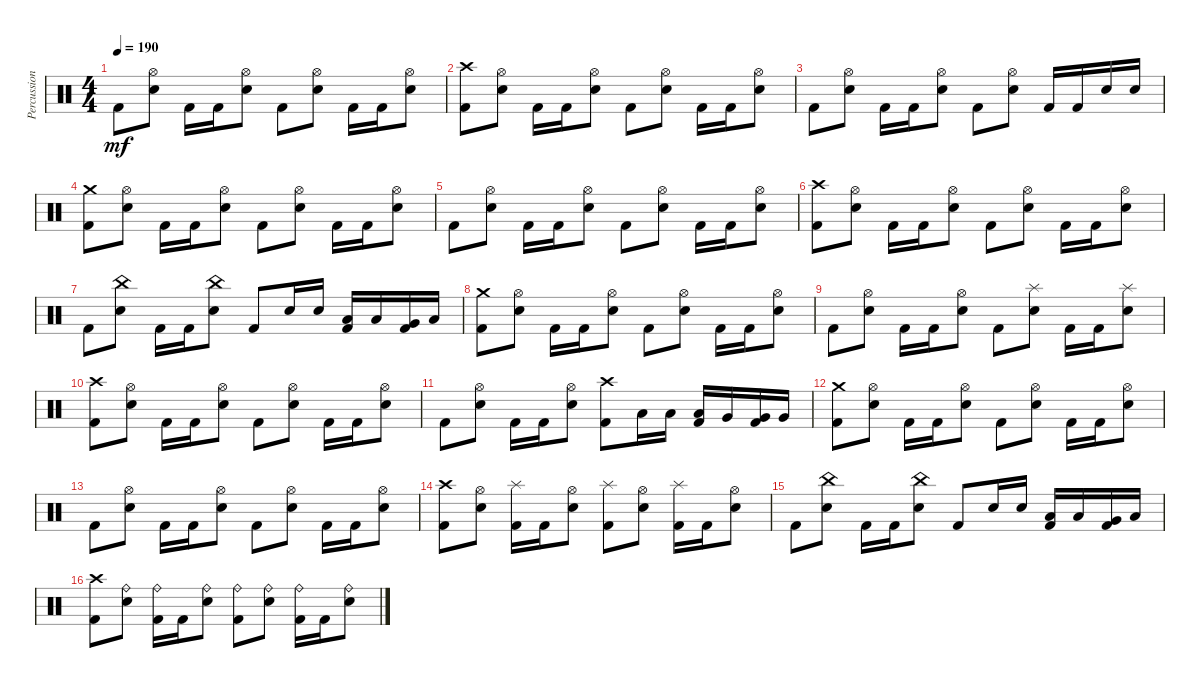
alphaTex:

\track ("Percussion" "Percussion") {instrument percussion}
\staff {score}
\articulation defaults
\ts (4 4)
\tempo 190
\clef neutral
\ks c "Kick (hit) 2".8{dy mf}
("Hi-Hat (open)" "Electric Snare (hit)").8 "Kick (hit) 2".16 "Kick (hit) 2".16 ("Hi-Hat (open)" "Electric Snare (hit)").8 "Kick (hit) 2".8 ("Hi-Hat (open)" "Electric Snare (hit)").8 "Kick (hit) 2".16 "Kick (hit) 2".16 ("Hi-Hat (open)" "Electric Snare (hit)").8 |
("Crash high (hit)" "Kick (hit) 2").8 ("Hi-Hat (open)" "Electric Snare (hit)").8 "Kick (hit) 2".16 "Kick (hit) 2".16 ("Hi-Hat (open)" "Electric Snare (hit)").8 "Kick (hit) 2".8 ("Hi-Hat (open)" "Electric Snare (hit)").8 "Kick (hit) 2".16 "Kick (hit) 2".16 ("Hi-Hat (open)" "Electric Snare (hit)").8 |
"Kick (hit) 2".8 ("Hi-Hat (open)" "Electric Snare (hit)").8 "Kick (hit) 2".16 "Kick (hit) 2".16 ("Hi-Hat (open)" "Electric Snare (hit)").8 "Kick (hit) 2".8 ("Hi-Hat (open)" "Electric Snare (hit)").8 "Kick (hit) 2".16 "Kick (hit) 2".16 "Electric Snare (hit)".16 "Electric Snare (hit)".16 |
("Crash medium (hit)" "Kick (hit) 2").8 ("Hi-Hat (open)" "Electric Snare (hit)").8 "Kick (hit) 2".16 "Kick (hit) 2".16 ("Hi-Hat (open)" "Electric Snare (hit)").8 "Kick (hit) 2".8 ("Hi-Hat (open)" "Electric Snare (hit)").8 "Kick (hit) 2".16 "Kick (hit) 2".16 ("Hi-Hat (open)" "Electric Snare (hit)").8 |
"Kick (hit) 2".8 ("Hi-Hat (open)" "Electric Snare (hit)").8 "Kick (hit) 2".16 "Kick (hit) 2".16 ("Hi-Hat (open)" "Electric Snare (hit)").8 "Kick (hit) 2".8 ("Hi-Hat (open)" "Electric Snare (hit)").8 "Kick (hit) 2".16 "Kick (hit) 2".16 ("Hi-Hat (open)" "Electric Snare (hit)").8 |
("Crash high (hit)" "Kick (hit) 2").8 ("Hi-Hat (open)" "Electric Snare (hit)").8 "Kick (hit) 2".16 "Kick (hit) 2".16 ("Hi-Hat (open)" "Electric Snare (hit)").8 "Kick (hit) 2".8 ("Hi-Hat (open)" "Electric Snare (hit)").8 "Kick (hit) 2".16 "Kick (hit) 2".16 ("Hi-Hat (open)" "Electric Snare (hit)").8 |
"Kick (hit) 2".8 ("China (hit)" "Electric Snare (hit)").8 "Kick (hit) 2".16 "Kick (hit) 2".16 ("China (hit)" "Electric Snare (hit)").8 "Kick (hit) 2".8 "Electric Snare (hit)".16 "Electric Snare (hit)".16 ("Low Tom (hit)" "Kick (hit) 2").16 "Low Tom (hit)".16 ("Very Low Tom (hit)" "Kick (hit) 2").16 "Low Floor Tom (hit)".16 |
("Crash medium (hit)" "Kick (hit) 2").8 ("Hi-Hat (open)" "Electric Snare (hit)").8 "Kick (hit) 2".16 "Kick (hit) 2".16 ("Hi-Hat (open)" "Electric Snare (hit)").8 "Kick (hit) 2".8 ("Hi-Hat (open)" "Electric Snare (hit)").8 "Kick (hit) 2".16 "Kick (hit) 2".16 ("Hi-Hat (open)" "Electric Snare (hit)").8 |
"Kick (hit) 2".8 ("Hi-Hat (open)" "Electric Snare (hit)").8 "Kick (hit) 2".16 "Kick (hit) 2".16 ("Hi-Hat (open)" "Electric Snare (hit)").8 "Kick (hit) 2".8 ("Splash (hit)" "Electric Snare (hit)").8 "Kick (hit) 2".16 "Kick (hit) 2".16 ("Splash (hit)" "Electric Snare (hit)").8 |
("Crash high (hit)" "Kick (hit) 2").8 ("Hi-Hat (open)" "Electric Snare (hit)").8 "Kick (hit) 2".16 "Kick (hit) 2".16 ("Hi-Hat (open)" "Electric Snare (hit)").8 "Kick (hit) 2".8 ("Hi-Hat (open)" "Electric Snare (hit)").8 "Kick (hit) 2".16 "Kick (hit) 2".16 ("Hi-Hat (open)" "Electric Snare (hit)").8 |
"Kick (hit) 2".8 ("Hi-Hat (open)" "Electric Snare (hit)").8 "Kick (hit) 2".16 "Kick (hit) 2".16 ("Hi-Hat (open)" "Electric Snare (hit)").8 ("Crash high (hit)" "Kick (hit) 2").8 "Low Tom (hit)".16 "Low Tom (hit)".16 ("Low Tom (hit)" "Kick (hit) 2").16 "Very Low Tom (hit)".16 ("Very Low Tom (hit)" "Kick (hit) 2").16 "Very Low Tom (hit)".16 |
("Crash medium (hit)" "Kick (hit) 2").8 ("Hi-Hat (open)" "Electric Snare (hit)").8 "Kick (hit) 2".16 "Kick (hit) 2".16 ("Hi-Hat (open)" "Electric Snare (hit)").8 "Kick (hit) 2".8 ("Hi-Hat (open)" "Electric Snare (hit)").8 "Kick (hit) 2".16 "Kick (hit) 2".16 ("Hi-Hat (open)" "Electric Snare (hit)").8 |
"Kick (hit) 2".8 ("Hi-Hat (open)" "Electric Snare (hit)").8 "Kick (hit) 2".16 "Kick (hit) 2".16 ("Hi-Hat (open)" "Electric Snare (hit)").8 "Kick (hit) 2".8 ("Hi-Hat (open)" "Electric Snare (hit)").8 "Kick (hit) 2".16 "Kick (hit) 2".16 ("Hi-Hat (open)" "Electric Snare (hit)").8 |
("Crash high (hit)" "Kick (hit) 2").8 ("Hi-Hat (open)" "Electric Snare (hit)").8 ("Splash (hit)" "Kick (hit) 2").16 "Kick (hit) 2".16 ("Hi-Hat (open)" "Electric Snare (hit)").8 ("Splash (hit)" "Kick (hit) 2").8 ("Hi-Hat (open)" "Electric Snare (hit)").8 ("Splash (hit)" "Kick (hit) 2").16 "Kick (hit) 2".16 ("Hi-Hat (open)" "Electric Snare (hit)").8 |
"Kick (hit) 2".8 ("China (hit)" "Electric Snare (hit)").8 "Kick (hit) 2".16 "Kick (hit) 2".16 ("China (hit)" "Electric Snare (hit)").8 "Kick (hit) 2".8 "Electric Snare (hit)".16 "Electric Snare (hit)".16 ("Low Tom (hit)" "Kick (hit) 2").16 "Low Tom (hit)".16 ("Very Low Tom (hit)" "Kick (hit) 2").16 "Low Floor Tom (hit)".16 |
("Crash high (hit)" "Kick (hit) 2").8 ("Ride (bell)" "Electric Snare (hit)").8 ("Ride (bell)" "Kick (hit) 2").16 "Kick (hit) 2".16 ("Ride (bell)" "Electric Snare (hit)").8 ("Ride (bell)" "Kick (hit) 2").8 ("Ride (bell)" "Electric Snare (hit)").8 ("Ride (bell)" "Kick (hit) 2").16 "Kick (hit) 2".16 ("Ride (bell)" "Electric Snare (hit)").8
